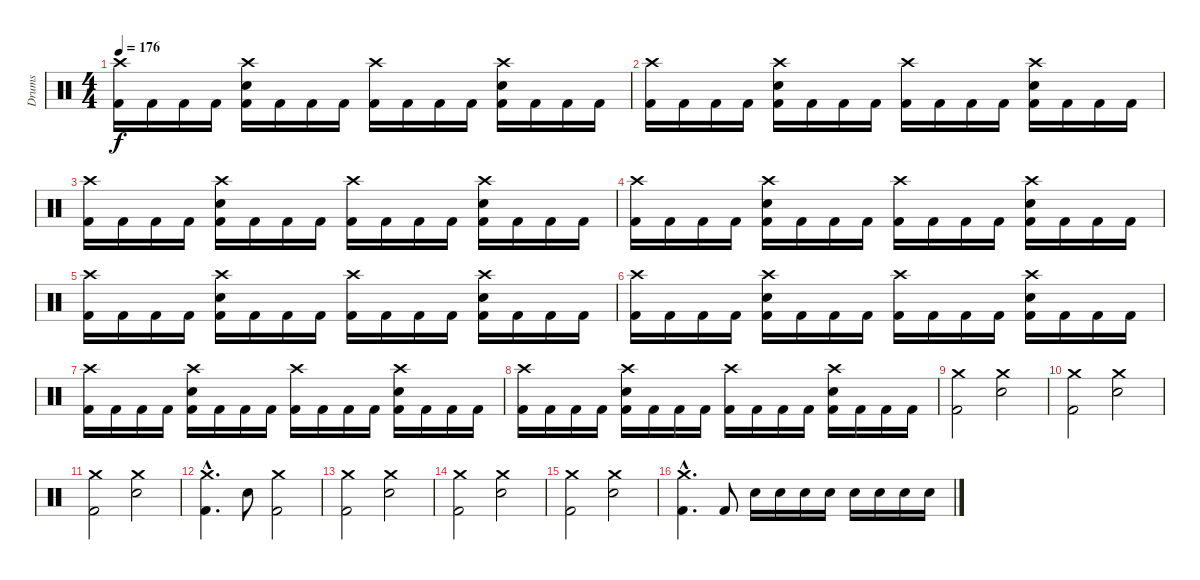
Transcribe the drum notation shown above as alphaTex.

\track ("Drums" "Drums") {instrument percussion}
\staff {score}
\articulation defaults
\ts (4 4)
\tempo 176
\clef neutral
\ks c
("Crash high (hit)" "Kick (hit) 2").16{dy f} "Kick (hit) 2".16 "Kick (hit) 2".16 "Kick (hit) 2".16 ("Crash high (hit)" "Electric Snare (hit)" "Kick (hit) 2").16 "Kick (hit) 2".16 "Kick (hit) 2".16 "Kick (hit) 2".16 ("Crash high (hit)" "Kick (hit) 2").16 "Kick (hit) 2".16 "Kick (hit) 2".16 "Kick (hit) 2".16 ("Crash high (hit)" "Electric Snare (hit)" "Kick (hit) 2").16 "Kick (hit) 2".16 "Kick (hit) 2".16 "Kick (hit) 2".16 |
("Crash high (hit)" "Kick (hit) 2").16 "Kick (hit) 2".16 "Kick (hit) 2".16 "Kick (hit) 2".16 ("Crash high (hit)" "Electric Snare (hit)" "Kick (hit) 2").16 "Kick (hit) 2".16 "Kick (hit) 2".16 "Kick (hit) 2".16 ("Crash high (hit)" "Kick (hit) 2").16 "Kick (hit) 2".16 "Kick (hit) 2".16 "Kick (hit) 2".16 ("Crash high (hit)" "Electric Snare (hit)" "Kick (hit) 2").16 "Kick (hit) 2".16 "Kick (hit) 2".16 "Kick (hit) 2".16 |
("Crash high (hit)" "Kick (hit) 2").16 "Kick (hit) 2".16 "Kick (hit) 2".16 "Kick (hit) 2".16 ("Crash high (hit)" "Electric Snare (hit)" "Kick (hit) 2").16 "Kick (hit) 2".16 "Kick (hit) 2".16 "Kick (hit) 2".16 ("Crash high (hit)" "Kick (hit) 2").16 "Kick (hit) 2".16 "Kick (hit) 2".16 "Kick (hit) 2".16 ("Crash high (hit)" "Electric Snare (hit)" "Kick (hit) 2").16 "Kick (hit) 2".16 "Kick (hit) 2".16 "Kick (hit) 2".16 |
("Crash high (hit)" "Kick (hit) 2").16 "Kick (hit) 2".16 "Kick (hit) 2".16 "Kick (hit) 2".16 ("Crash high (hit)" "Electric Snare (hit)" "Kick (hit) 2").16 "Kick (hit) 2".16 "Kick (hit) 2".16 "Kick (hit) 2".16 ("Crash high (hit)" "Kick (hit) 2").16 "Kick (hit) 2".16 "Kick (hit) 2".16 "Kick (hit) 2".16 ("Crash high (hit)" "Electric Snare (hit)" "Kick (hit) 2").16 "Kick (hit) 2".16 "Kick (hit) 2".16 "Kick (hit) 2".16 |
("Crash high (hit)" "Kick (hit) 2").16 "Kick (hit) 2".16 "Kick (hit) 2".16 "Kick (hit) 2".16 ("Crash high (hit)" "Electric Snare (hit)" "Kick (hit) 2").16 "Kick (hit) 2".16 "Kick (hit) 2".16 "Kick (hit) 2".16 ("Crash high (hit)" "Kick (hit) 2").16 "Kick (hit) 2".16 "Kick (hit) 2".16 "Kick (hit) 2".16 ("Crash high (hit)" "Electric Snare (hit)" "Kick (hit) 2").16 "Kick (hit) 2".16 "Kick (hit) 2".16 "Kick (hit) 2".16 |
("Crash high (hit)" "Kick (hit) 2").16 "Kick (hit) 2".16 "Kick (hit) 2".16 "Kick (hit) 2".16 ("Crash high (hit)" "Electric Snare (hit)" "Kick (hit) 2").16 "Kick (hit) 2".16 "Kick (hit) 2".16 "Kick (hit) 2".16 ("Crash high (hit)" "Kick (hit) 2").16 "Kick (hit) 2".16 "Kick (hit) 2".16 "Kick (hit) 2".16 ("Crash high (hit)" "Electric Snare (hit)" "Kick (hit) 2").16 "Kick (hit) 2".16 "Kick (hit) 2".16 "Kick (hit) 2".16 |
("Crash high (hit)" "Kick (hit) 2").16 "Kick (hit) 2".16 "Kick (hit) 2".16 "Kick (hit) 2".16 ("Crash high (hit)" "Electric Snare (hit)" "Kick (hit) 2").16 "Kick (hit) 2".16 "Kick (hit) 2".16 "Kick (hit) 2".16 ("Crash high (hit)" "Kick (hit) 2").16 "Kick (hit) 2".16 "Kick (hit) 2".16 "Kick (hit) 2".16 ("Crash high (hit)" "Electric Snare (hit)" "Kick (hit) 2").16 "Kick (hit) 2".16 "Kick (hit) 2".16 "Kick (hit) 2".16 |
("Crash high (hit)" "Kick (hit) 2").16 "Kick (hit) 2".16 "Kick (hit) 2".16 "Kick (hit) 2".16 ("Crash high (hit)" "Electric Snare (hit)" "Kick (hit) 2").16 "Kick (hit) 2".16 "Kick (hit) 2".16 "Kick (hit) 2".16 ("Crash high (hit)" "Kick (hit) 2").16 "Kick (hit) 2".16 "Kick (hit) 2".16 "Kick (hit) 2".16 ("Crash high (hit)" "Electric Snare (hit)" "Kick (hit) 2").16 "Kick (hit) 2".16 "Kick (hit) 2".16 "Kick (hit) 2".16 |
("Crash medium (hit)" "Kick (hit) 2").2 ("Crash medium (hit)" "Electric Snare (hit)").2 |
("Crash medium (hit)" "Kick (hit) 2").2 ("Crash medium (hit)" "Electric Snare (hit)").2 |
("Crash medium (hit)" "Kick (hit) 2").2 ("Crash medium (hit)" "Electric Snare (hit)").2 |
("Crash medium (hit)"{hac} "Kick (hit) 2"{hac}).4{d} "Electric Snare (hit)".8 ("Crash medium (hit)" "Kick (hit) 2").2 |
("Crash medium (hit)" "Kick (hit) 2").2 ("Crash medium (hit)" "Electric Snare (hit)").2 |
("Crash medium (hit)" "Kick (hit) 2").2 ("Crash medium (hit)" "Electric Snare (hit)").2 |
("Crash medium (hit)" "Kick (hit) 2").2 ("Crash medium (hit)" "Electric Snare (hit)").2 |
("Crash medium (hit)"{hac} "Kick (hit) 2"{hac}).4{d} "Kick (hit) 2".8 "Electric Snare (hit)".16 "Electric Snare (hit)".16 "Electric Snare (hit)".16 "Electric Snare (hit)".16 "Electric Snare (hit)".16 "Electric Snare (hit)".16 "Electric Snare (hit)".16 "Electric Snare (hit)".16
